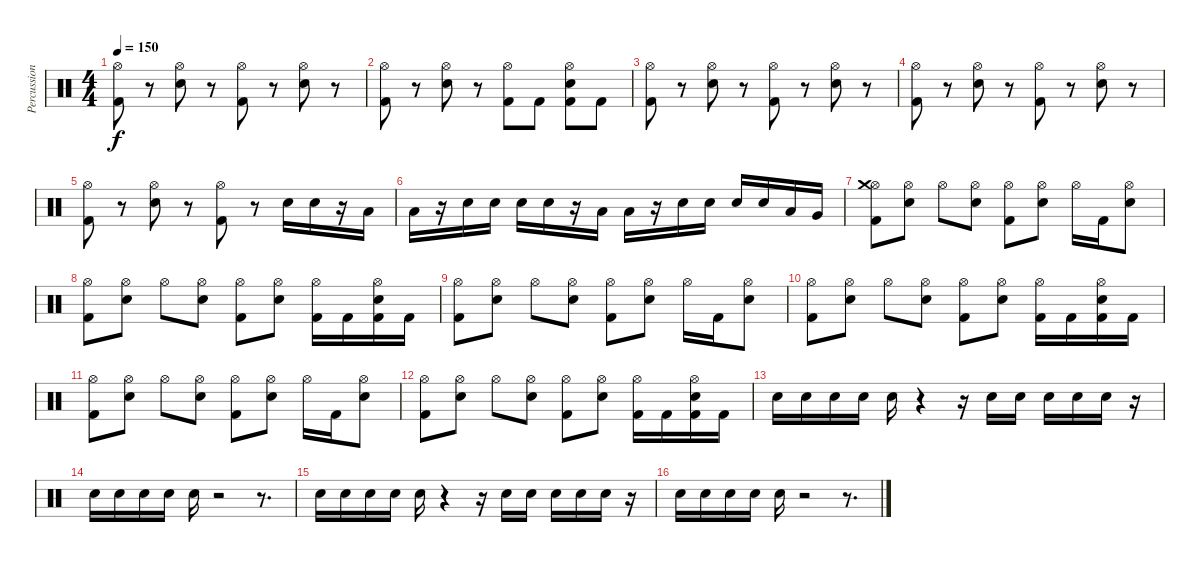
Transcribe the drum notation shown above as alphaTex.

\track ("Percussion" "Percussion") {instrument percussion}
\staff {score}
\articulation defaults
\ts (4 4)
\tempo 150
\clef neutral
\ks c
("Hi-Hat (open)" "Kick (hit) 2").8{dy f} r.8 ("Hi-Hat (open)" "Electric Snare (hit)").8 r.8 ("Hi-Hat (open)" "Kick (hit) 2").8 r.8 ("Hi-Hat (open)" "Electric Snare (hit)").8 r.8 |
("Hi-Hat (open)" "Kick (hit) 2").8 r.8 ("Hi-Hat (open)" "Electric Snare (hit)").8 r.8 ("Hi-Hat (open)" "Kick (hit) 2").8 "Kick (hit) 2".8 ("Hi-Hat (open)" "Kick (hit) 2" "Electric Snare (hit)").8 "Kick (hit) 2".8 |
("Hi-Hat (open)" "Kick (hit) 2").8 r.8 ("Hi-Hat (open)" "Electric Snare (hit)").8 r.8 ("Hi-Hat (open)" "Kick (hit) 2").8 r.8 ("Hi-Hat (open)" "Electric Snare (hit)").8 r.8 |
("Hi-Hat (open)" "Kick (hit) 2").8 r.8 ("Hi-Hat (open)" "Electric Snare (hit)").8 r.8 ("Hi-Hat (open)" "Kick (hit) 2").8 r.8 ("Hi-Hat (open)" "Electric Snare (hit)").8 r.8 |
("Hi-Hat (open)" "Kick (hit) 2").8 r.8 ("Hi-Hat (open)" "Electric Snare (hit)").8 r.8 ("Hi-Hat (open)" "Kick (hit) 2").8 r.8 "Electric Snare (hit)".16 "Electric Snare (hit)".16 r.16 "Low Tom (hit)".16 |
"Low Tom (hit)".16 r.16 "Electric Snare (hit)".16 "Electric Snare (hit)".16 "Electric Snare (hit)".16 "Electric Snare (hit)".16 r.16 "Low Tom (hit)".16 "Low Tom (hit)".16 r.16 "Electric Snare (hit)".16 "Electric Snare (hit)".16 "Electric Snare (hit)".16 "Electric Snare (hit)".16 "Low Tom (hit)".16 "Very Low Tom (hit)".16 |
("Hi-Hat (open)" "Kick (hit) 2" "Crash medium (hit)").8 ("Hi-Hat (open)" "Electric Snare (hit)").8 "Hi-Hat (open)".8 ("Hi-Hat (open)" "Electric Snare (hit)").8 ("Hi-Hat (open)" "Kick (hit) 2").8 ("Hi-Hat (open)" "Electric Snare (hit)").8 "Hi-Hat (open)".16 "Kick (hit) 2".16 ("Hi-Hat (open)" "Electric Snare (hit)").8 |
("Hi-Hat (open)" "Kick (hit) 2").8 ("Hi-Hat (open)" "Electric Snare (hit)").8 "Hi-Hat (open)".8 ("Hi-Hat (open)" "Electric Snare (hit)").8 ("Hi-Hat (open)" "Kick (hit) 2").8 ("Hi-Hat (open)" "Electric Snare (hit)").8 ("Hi-Hat (open)" "Kick (hit) 2").16 "Kick (hit) 2".16 ("Hi-Hat (open)" "Kick (hit) 2" "Electric Snare (hit)").16 "Kick (hit) 2".16 |
("Hi-Hat (open)" "Kick (hit) 2").8 ("Hi-Hat (open)" "Electric Snare (hit)").8 "Hi-Hat (open)".8 ("Hi-Hat (open)" "Electric Snare (hit)").8 ("Hi-Hat (open)" "Kick (hit) 2").8 ("Hi-Hat (open)" "Electric Snare (hit)").8 "Hi-Hat (open)".16 "Kick (hit) 2".16 ("Hi-Hat (open)" "Electric Snare (hit)").8 |
("Hi-Hat (open)" "Kick (hit) 2").8 ("Hi-Hat (open)" "Electric Snare (hit)").8 "Hi-Hat (open)".8 ("Hi-Hat (open)" "Electric Snare (hit)").8 ("Hi-Hat (open)" "Kick (hit) 2").8 ("Hi-Hat (open)" "Electric Snare (hit)").8 ("Hi-Hat (open)" "Kick (hit) 2").16 "Kick (hit) 2".16 ("Hi-Hat (open)" "Kick (hit) 2" "Electric Snare (hit)").16 "Kick (hit) 2".16 |
("Hi-Hat (open)" "Kick (hit) 2").8 ("Hi-Hat (open)" "Electric Snare (hit)").8 "Hi-Hat (open)".8 ("Hi-Hat (open)" "Electric Snare (hit)").8 ("Hi-Hat (open)" "Kick (hit) 2").8 ("Hi-Hat (open)" "Electric Snare (hit)").8 "Hi-Hat (open)".16 "Kick (hit) 2".16 ("Hi-Hat (open)" "Electric Snare (hit)").8 |
("Hi-Hat (open)" "Kick (hit) 2").8 ("Hi-Hat (open)" "Electric Snare (hit)").8 "Hi-Hat (open)".8 ("Hi-Hat (open)" "Electric Snare (hit)").8 ("Hi-Hat (open)" "Kick (hit) 2").8 ("Hi-Hat (open)" "Electric Snare (hit)").8 ("Hi-Hat (open)" "Kick (hit) 2").16 "Kick (hit) 2".16 ("Hi-Hat (open)" "Kick (hit) 2" "Electric Snare (hit)").16 "Kick (hit) 2".16 |
"Electric Snare (hit)".16 "Electric Snare (hit)".16 "Electric Snare (hit)".16 "Electric Snare (hit)".16 "Electric Snare (hit)".16 r.4 r.16 "Electric Snare (hit)".16 "Electric Snare (hit)".16 "Electric Snare (hit)".16 "Electric Snare (hit)".16 "Electric Snare (hit)".16 r.16 |
"Electric Snare (hit)".16 "Electric Snare (hit)".16 "Electric Snare (hit)".16 "Electric Snare (hit)".16 "Electric Snare (hit)".16 r.2 r.8{d} |
"Electric Snare (hit)".16 "Electric Snare (hit)".16 "Electric Snare (hit)".16 "Electric Snare (hit)".16 "Electric Snare (hit)".16 r.4 r.16 "Electric Snare (hit)".16 "Electric Snare (hit)".16 "Electric Snare (hit)".16 "Electric Snare (hit)".16 "Electric Snare (hit)".16 r.16 |
"Electric Snare (hit)".16 "Electric Snare (hit)".16 "Electric Snare (hit)".16 "Electric Snare (hit)".16 "Electric Snare (hit)".16 r.2 r.8{d}
